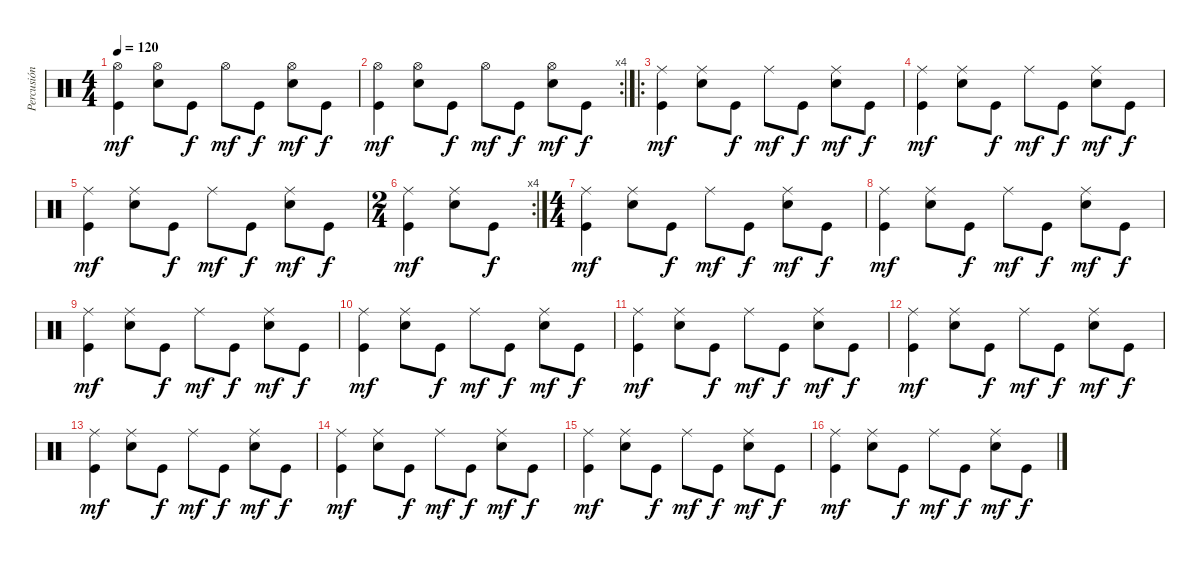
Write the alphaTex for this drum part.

\track ("Percusión" "Percusión") {instrument percussion}
\staff {score}
\articulation defaults
\ts (4 4)
\tempo 120
\clef neutral
\ks c
("Kick (hit)" "Hi-Hat (open)").4{dy mf} ("Electric Snare (hit)" "Hi-Hat (open)").8 "Kick (hit)".8{dy f} "Hi-Hat (open)".8{dy mf} "Kick (hit)".8{dy f} ("Electric Snare (hit)" "Hi-Hat (open)").8{dy mf} "Kick (hit)".8{dy f} |
\rc 4
("Kick (hit)" "Hi-Hat (open)").4{dy mf} ("Electric Snare (hit)" "Hi-Hat (open)").8 "Kick (hit)".8{dy f} "Hi-Hat (open)".8{dy mf} "Kick (hit)".8{dy f} ("Electric Snare (hit)" "Hi-Hat (open)").8{dy mf} "Kick (hit)".8{dy f} |
\ro
("Kick (hit)" "Ride (middle)").4{dy mf} ("Electric Snare (hit)" "Ride (middle)").8 "Kick (hit)".8{dy f} "Ride (middle)".8{dy mf} "Kick (hit)".8{dy f} ("Electric Snare (hit)" "Ride (middle)").8{dy mf} "Kick (hit)".8{dy f} |
("Kick (hit)" "Ride (middle)").4{dy mf} ("Electric Snare (hit)" "Ride (middle)").8 "Kick (hit)".8{dy f} "Ride (middle)".8{dy mf} "Kick (hit)".8{dy f} ("Electric Snare (hit)" "Ride (middle)").8{dy mf} "Kick (hit)".8{dy f} |
("Kick (hit)" "Ride (middle)").4{dy mf} ("Electric Snare (hit)" "Ride (middle)").8 "Kick (hit)".8{dy f} "Ride (middle)".8{dy mf} "Kick (hit)".8{dy f} ("Electric Snare (hit)" "Ride (middle)").8{dy mf} "Kick (hit)".8{dy f} |
\rc 4
\ts (2 4)
("Kick (hit)" "Ride (middle)").4{dy mf} ("Electric Snare (hit)" "Ride (middle)").8 "Kick (hit)".8{dy f} |
\ts (4 4)
("Kick (hit)" "Ride (middle)").4{dy mf} ("Electric Snare (hit)" "Ride (middle)").8 "Kick (hit)".8{dy f} "Ride (middle)".8{dy mf} "Kick (hit)".8{dy f} ("Electric Snare (hit)" "Ride (middle)").8{dy mf} "Kick (hit)".8{dy f} |
("Kick (hit)" "Ride (middle)").4{dy mf} ("Electric Snare (hit)" "Ride (middle)").8 "Kick (hit)".8{dy f} "Ride (middle)".8{dy mf} "Kick (hit)".8{dy f} ("Electric Snare (hit)" "Ride (middle)").8{dy mf} "Kick (hit)".8{dy f} |
("Kick (hit)" "Ride (middle)").4{dy mf} ("Electric Snare (hit)" "Ride (middle)").8 "Kick (hit)".8{dy f} "Ride (middle)".8{dy mf} "Kick (hit)".8{dy f} ("Electric Snare (hit)" "Ride (middle)").8{dy mf} "Kick (hit)".8{dy f} |
("Kick (hit)" "Ride (middle)").4{dy mf} ("Electric Snare (hit)" "Ride (middle)").8 "Kick (hit)".8{dy f} "Ride (middle)".8{dy mf} "Kick (hit)".8{dy f} ("Electric Snare (hit)" "Ride (middle)").8{dy mf} "Kick (hit)".8{dy f} |
("Kick (hit)" "Ride (middle)").4{dy mf} ("Electric Snare (hit)" "Ride (middle)").8 "Kick (hit)".8{dy f} "Ride (middle)".8{dy mf} "Kick (hit)".8{dy f} ("Electric Snare (hit)" "Ride (middle)").8{dy mf} "Kick (hit)".8{dy f} |
("Kick (hit)" "Ride (middle)").4{dy mf} ("Electric Snare (hit)" "Ride (middle)").8 "Kick (hit)".8{dy f} "Ride (middle)".8{dy mf} "Kick (hit)".8{dy f} ("Electric Snare (hit)" "Ride (middle)").8{dy mf} "Kick (hit)".8{dy f} |
("Kick (hit)" "Ride (middle)").4{dy mf} ("Electric Snare (hit)" "Ride (middle)").8 "Kick (hit)".8{dy f} "Ride (middle)".8{dy mf} "Kick (hit)".8{dy f} ("Electric Snare (hit)" "Ride (middle)").8{dy mf} "Kick (hit)".8{dy f} |
("Kick (hit)" "Ride (middle)").4{dy mf} ("Electric Snare (hit)" "Ride (middle)").8 "Kick (hit)".8{dy f} "Ride (middle)".8{dy mf} "Kick (hit)".8{dy f} ("Electric Snare (hit)" "Ride (middle)").8{dy mf} "Kick (hit)".8{dy f} |
("Kick (hit)" "Ride (middle)").4{dy mf} ("Electric Snare (hit)" "Ride (middle)").8 "Kick (hit)".8{dy f} "Ride (middle)".8{dy mf} "Kick (hit)".8{dy f} ("Electric Snare (hit)" "Ride (middle)").8{dy mf} "Kick (hit)".8{dy f} |
("Kick (hit)" "Ride (middle)").4{dy mf} ("Electric Snare (hit)" "Ride (middle)").8 "Kick (hit)".8{dy f} "Ride (middle)".8{dy mf} "Kick (hit)".8{dy f} ("Electric Snare (hit)" "Ride (middle)").8{dy mf} "Kick (hit)".8{dy f}
